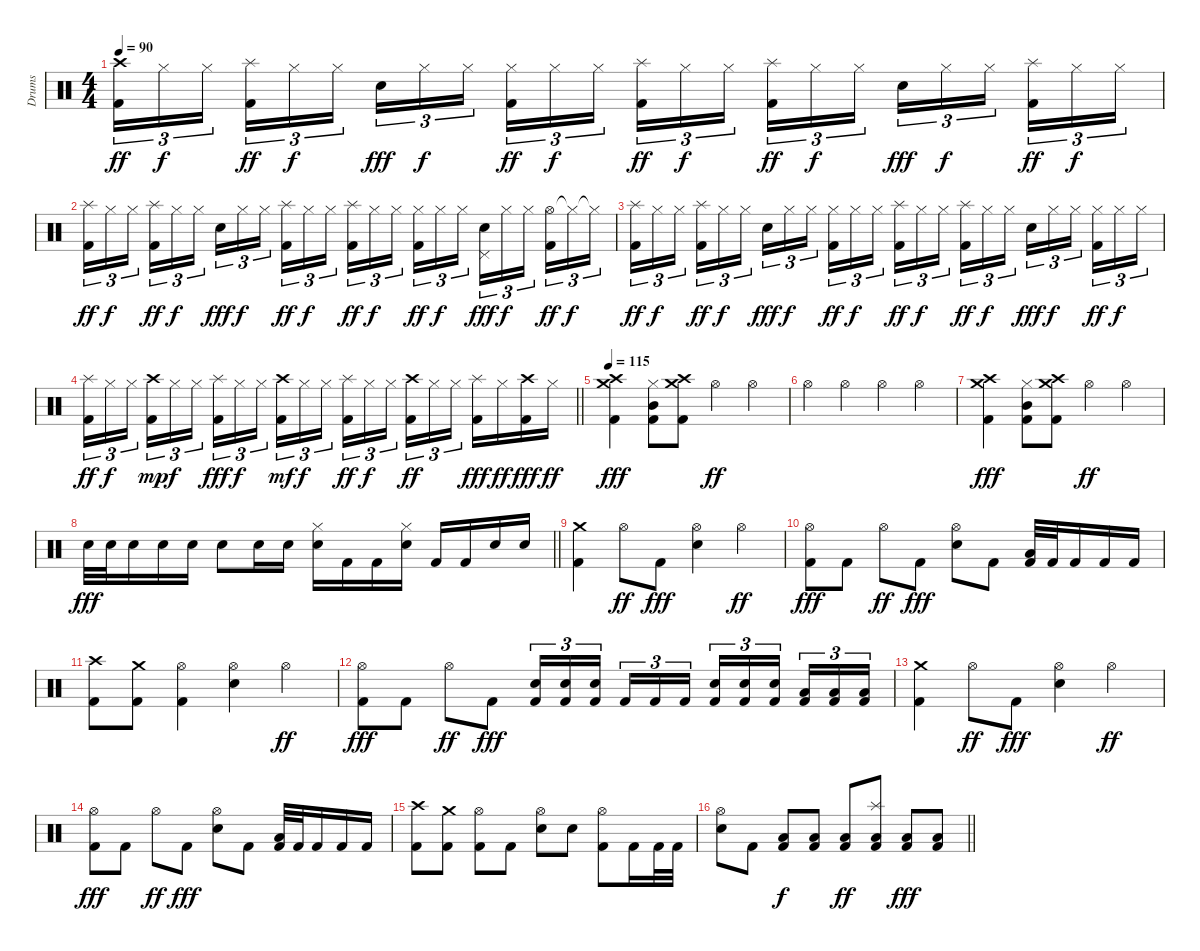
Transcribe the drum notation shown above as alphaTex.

\track ("Drums" "Drums") {instrument percussion}
\staff {score}
\articulation defaults
\ts (4 4)
\tempo 90
\clef neutral
\ks c
("Crash high (hit)" "Kick (hit) 2").16{tu (3 2) dy ff} "Hi-Hat (closed)".16{tu (3 2) dy f} "Hi-Hat (closed)".16{tu (3 2) beam splitsecondary} ("Splash (hit)" "Kick (hit) 2").16{tu (3 2) dy ff} "Hi-Hat (closed)".16{tu (3 2) dy f} "Hi-Hat (closed)".16{tu (3 2)} "Snare (hit) 2".16{tu (3 2) dy fff} "Hi-Hat (closed)".16{tu (3 2) dy f} "Hi-Hat (closed)".16{tu (3 2) beam splitsecondary} ("Hi-Hat (closed)" "Kick (hit) 2").16{tu (3 2) dy ff} "Hi-Hat (closed)".16{tu (3 2) dy f} "Hi-Hat (closed)".16{tu (3 2)} ("Splash (hit)" "Kick (hit) 2").16{tu (3 2) dy ff} "Hi-Hat (closed)".16{tu (3 2) dy f} "Hi-Hat (closed)".16{tu (3 2) beam splitsecondary} ("Splash (hit)" "Kick (hit) 2").16{tu (3 2) dy ff} "Hi-Hat (closed)".16{tu (3 2) dy f} "Hi-Hat (closed)".16{tu (3 2)} "Snare (hit) 2".16{tu (3 2) dy fff} "Hi-Hat (closed)".16{tu (3 2) dy f} "Hi-Hat (closed)".16{tu (3 2) beam splitsecondary} ("Splash (hit)" "Kick (hit) 2").16{tu (3 2) dy ff} "Hi-Hat (closed)".16{tu (3 2) dy f} "Hi-Hat (closed)".16{tu (3 2)} |
("Splash (hit)" "Kick (hit) 2").16{tu (3 2) dy ff} "Hi-Hat (closed)".16{tu (3 2) dy f} "Hi-Hat (closed)".16{tu (3 2) beam splitsecondary} ("Splash (hit)" "Kick (hit) 2").16{tu (3 2) dy ff} "Hi-Hat (closed)".16{tu (3 2) dy f} "Hi-Hat (closed)".16{tu (3 2)} "Snare (hit) 2".16{tu (3 2) dy fff} "Hi-Hat (closed)".16{tu (3 2) dy f} "Hi-Hat (closed)".16{tu (3 2) beam splitsecondary} ("Splash (hit)" "Kick (hit) 2").16{tu (3 2) dy ff} "Hi-Hat (closed)".16{tu (3 2) dy f} "Hi-Hat (closed)".16{tu (3 2)} ("Splash (hit)" "Kick (hit) 2").16{tu (3 2) dy ff} "Hi-Hat (closed)".16{tu (3 2) dy f} "Hi-Hat (closed)".16{tu (3 2) beam splitsecondary} ("Hi-Hat (closed)" "Kick (hit) 2").16{tu (3 2) dy ff} "Hi-Hat (closed)".16{tu (3 2) dy f} "Hi-Hat (closed)".16{tu (3 2)} ("Pedal Hi-Hat (hit)" "Snare (hit) 2").16{tu (3 2) dy fff} "Hi-Hat (closed)".16{tu (3 2) dy f} "Hi-Hat (closed)".16{tu (3 2) beam splitsecondary} ("Hi-Hat (open)" "Kick (hit) 2").16{tu (3 2) dy ff} "Hi-Hat (closed)"{t}.16{tu (3 2) dy f} "Hi-Hat (closed)"{t}.16{tu (3 2)} |
("Splash (hit)" "Kick (hit) 2").16{tu (3 2) dy ff} "Hi-Hat (closed)".16{tu (3 2) dy f} "Hi-Hat (closed)".16{tu (3 2) beam splitsecondary} ("Splash (hit)" "Kick (hit) 2").16{tu (3 2) dy ff} "Hi-Hat (closed)".16{tu (3 2) dy f} "Hi-Hat (closed)".16{tu (3 2)} "Snare (hit) 2".16{tu (3 2) dy fff} "Hi-Hat (closed)".16{tu (3 2) dy f} "Hi-Hat (closed)".16{tu (3 2) beam splitsecondary} ("Hi-Hat (closed)" "Kick (hit) 2").16{tu (3 2) dy ff} "Hi-Hat (closed)".16{tu (3 2) dy f} "Hi-Hat (closed)".16{tu (3 2)} ("Splash (hit)" "Kick (hit) 2").16{tu (3 2) dy ff} "Hi-Hat (closed)".16{tu (3 2) dy f} "Hi-Hat (closed)".16{tu (3 2) beam splitsecondary} ("Splash (hit)" "Kick (hit) 2").16{tu (3 2) dy ff} "Hi-Hat (closed)".16{tu (3 2) dy f} "Hi-Hat (closed)".16{tu (3 2)} "Snare (hit) 2".16{tu (3 2) dy fff} "Hi-Hat (closed)".16{tu (3 2) dy f} "Hi-Hat (closed)".16{tu (3 2) beam splitsecondary} ("Hi-Hat (closed)" "Kick (hit) 2").16{tu (3 2) dy ff} "Hi-Hat (closed)".16{tu (3 2) dy f} "Hi-Hat (closed)".16{tu (3 2)} |
\barLineRight lightlight
("Splash (hit)" "Kick (hit) 2").16{tu (3 2) dy ff} "Hi-Hat (closed)".16{tu (3 2) dy f} "Hi-Hat (closed)".16{tu (3 2) beam splitsecondary} ("Crash high (hit)" "Kick (hit) 2").16{tu (3 2) dy mp} "Hi-Hat (closed)".16{tu (3 2) dy f} "Hi-Hat (closed)".16{tu (3 2)} ("Splash (hit)" "Kick (hit) 2").16{tu (3 2) dy fff} "Hi-Hat (closed)".16{tu (3 2) dy f} "Hi-Hat (closed)".16{tu (3 2) beam splitsecondary} ("Crash high (hit)" "Kick (hit) 2").16{tu (3 2) dy mf} "Hi-Hat (closed)".16{tu (3 2) dy f} "Hi-Hat (closed)".16{tu (3 2)} ("Splash (hit)" "Kick (hit) 2").16{tu (3 2) dy ff} "Hi-Hat (closed)".16{tu (3 2) dy f} "Hi-Hat (closed)".16{tu (3 2) beam splitsecondary} ("Crash high (hit)" "Kick (hit) 2").16{tu (3 2) dy ff} "Hi-Hat (closed)".16{tu (3 2)} "Hi-Hat (closed)".16{tu (3 2)} ("Splash (hit)" "Kick (hit) 2").16{dy fff} "Hi-Hat (closed)".16{dy ff} ("Crash high (hit)" "Kick (hit) 2").16{dy fff} "Hi-Hat (closed)".16{dy ff} |
\section ("" "")
\tempo 115
("Crash medium (hit)" "Crash high (hit)" "Kick (hit) 2").4{dy fff} ("Hi-Hat (closed)" "Mid Tom (hit)" "Kick (hit) 2").8 ("Crash medium (hit)" "Crash high (hit)" "Kick (hit) 2").8 "Hi-Hat (open)".4{dy ff} "Hi-Hat (open)".4 |
"Hi-Hat (open)".4 "Hi-Hat (open)".4 "Hi-Hat (open)".4 "Hi-Hat (open)".4 |
("Crash medium (hit)" "Crash high (hit)" "Kick (hit) 2").4{dy fff} ("Hi-Hat (closed)" "Mid Tom (hit)" "Kick (hit) 2").8 ("Crash medium (hit)" "Crash high (hit)" "Kick (hit) 2").8 "Hi-Hat (open)".4{dy ff} "Hi-Hat (open)".4 |
\barLineRight lightlight "Snare (hit) 2".32{dy fff} "Snare (hit) 2".32 "Snare (hit) 2".16 "Snare (hit) 2".16 "Snare (hit) 2".16 "Snare (hit) 2".8 "Snare (hit) 2".16 "Snare (hit) 2".16
("Hi-Hat (closed)" "Snare (hit) 2").16 "Kick (hit) 2".16 "Kick (hit) 2".16 ("Hi-Hat (closed)" "Snare (hit) 2").16 "Kick (hit) 2".16 "Kick (hit) 2".16 "Snare (hit) 2".16 "Snare (hit) 2".16 |
\section ("" "")
("Crash medium (hit)" "Kick (hit) 2").4 "Hi-Hat (open)".8{dy ff} "Kick (hit) 2".8{dy fff} ("Hi-Hat (open)" "Snare (hit) 2").4 "Hi-Hat (open)".4{dy ff} |
("Hi-Hat (open)" "Kick (hit) 2").8{dy fff} "Kick (hit) 2".8 "Hi-Hat (open)".8{dy ff} "Kick (hit) 2".8{dy fff} ("Hi-Hat (open)" "Snare (hit) 2").8 "Kick (hit) 2".8 ("Low Tom (hit)" "Kick (hit) 2").32 "Kick (hit) 2".32 "Kick (hit) 2".16 "Kick (hit) 2".16 "Kick (hit) 2".16 |
("Crash high (hit)" "Kick (hit) 2").8 ("Crash medium (hit)" "Kick (hit) 2").8 ("Hi-Hat (open)" "Kick (hit) 2").4 ("Hi-Hat (open)" "Snare (hit) 2").4 "Hi-Hat (open)".4{dy ff} |
("Hi-Hat (open)" "Kick (hit) 2").8{dy fff} "Kick (hit) 2".8 "Hi-Hat (open)".8{dy ff} "Kick (hit) 2".8{dy fff} ("Snare (hit) 2" "Kick (hit) 2").16{tu (3 2)} ("Snare (hit) 2" "Kick (hit) 2").16{tu (3 2)} ("Snare (hit) 2" "Kick (hit) 2").16{tu (3 2) beam splitsecondary} "Kick (hit) 2".16{tu (3 2)} "Kick (hit) 2".16{tu (3 2)} "Kick (hit) 2".16{tu (3 2)} ("Snare (hit) 2" "Kick (hit) 2").16{tu (3 2)} ("Snare (hit) 2" "Kick (hit) 2").16{tu (3 2)} ("Snare (hit) 2" "Kick (hit) 2").16{tu (3 2) beam splitsecondary} ("Low Tom (hit)" "Kick (hit) 2").16{tu (3 2)} ("Low Tom (hit)" "Kick (hit) 2").16{tu (3 2)} ("Low Tom (hit)" "Kick (hit) 2").16{tu (3 2)} |
("Crash medium (hit)" "Kick (hit) 2").4 "Hi-Hat (open)".8{dy ff} "Kick (hit) 2".8{dy fff} ("Hi-Hat (open)" "Snare (hit) 2").4 "Hi-Hat (open)".4{dy ff} |
("Hi-Hat (open)" "Kick (hit) 2").8{dy fff} "Kick (hit) 2".8 "Hi-Hat (open)".8{dy ff} "Kick (hit) 2".8{dy fff} ("Hi-Hat (open)" "Snare (hit) 2").8 "Kick (hit) 2".8 ("Low Tom (hit)" "Kick (hit) 2").32 "Kick (hit) 2".32 "Kick (hit) 2".16 "Kick (hit) 2".16 "Kick (hit) 2".16 |
("Crash high (hit)" "Kick (hit) 2").8 ("Crash medium (hit)" "Kick (hit) 2").8 ("Hi-Hat (open)" "Kick (hit) 2").8 "Kick (hit) 2".8 ("Hi-Hat (open)" "Snare (hit) 2").8 "Snare (hit) 2".8 ("Hi-Hat (open)" "Kick (hit) 2").8 "Kick (hit) 2".16 "Kick (hit) 2".32 "Kick (hit) 2".32 |
\barLineRight lightlight
("Hi-Hat (open)" "Snare (hit) 2").8 "Kick (hit) 2".8 ("Low Tom (hit)" "Kick (hit) 2").8{dy f} ("Low Tom (hit)" "Kick (hit) 2").8 ("Low Tom (hit)" "Kick (hit) 2").8{dy ff} ("Splash (hit)" "Low Tom (hit)" "Kick (hit) 2").8 ("Low Tom (hit)" "Kick (hit) 2").8{dy fff} ("Low Tom (hit)" "Kick (hit) 2").8
